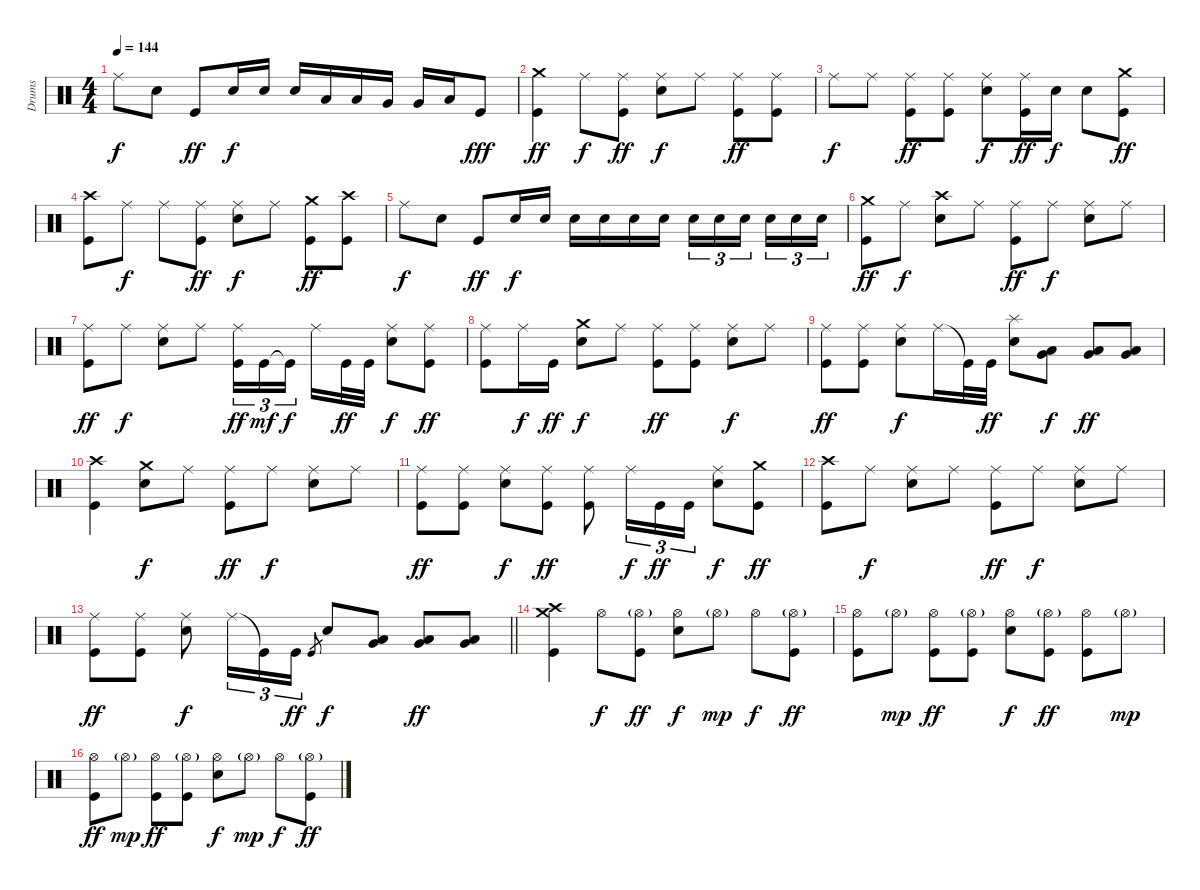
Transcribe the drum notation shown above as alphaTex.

\track ("Drums" "Drums") {instrument percussion}
\staff {score}
\articulation defaults
\ts (4 4)
\tempo 144
\clef neutral
\ks c "Ride (middle)".8{dy f} "Snare (hit) 2".8 "Kick (hit)".8{dy ff} "Snare (hit) 2".16{dy f} "Snare (hit) 2".16 "Snare (hit) 2".16 "Low Tom (hit)".16 "Low Tom (hit)".16 "Very Low Tom (hit)".16 "Very Low Tom (hit)".16 "Low Floor Tom (hit)".16 "Kick (hit)".8{dy fff}
|
("Crash medium (hit)" "Kick (hit)").4{dy ff} "Ride (middle)".8{dy f} ("Ride (middle)" "Kick (hit)").8{dy ff} ("Ride (middle)" "Snare (hit) 2").8{dy f} "Ride (middle)".8 ("Ride (middle)" "Kick (hit)").8{dy ff} ("Ride (middle)" "Kick (hit)").8 |
"Ride (middle)".8{dy f} "Ride (middle)".8 ("Ride (middle)" "Kick (hit)").8{dy ff} ("Ride (middle)" "Kick (hit)").8 ("Ride (middle)" "Snare (hit) 2").8{dy f} ("Ride (middle)" "Kick (hit)").16{dy ff} "Snare (hit) 2".16{dy f} "Snare (hit) 2".8 ("Crash medium (hit)" "Kick (hit)").8{dy ff} |
("Crash high (hit)" "Kick (hit)").8 "Ride (middle)".8{dy f} "Ride (middle)".8 ("Ride (middle)" "Kick (hit)").8{dy ff} ("Ride (middle)" "Snare (hit) 2").8{dy f} "Ride (middle)".8 ("Crash medium (hit)" "Kick (hit)").8{dy ff} ("Crash high (hit)" "Kick (hit)").8 |
"Ride (middle)".8{dy f} "Snare (hit) 2".8 "Kick (hit)".8{dy ff} "Snare (hit) 2".16{dy f} "Snare (hit) 2".16 "Snare (hit) 2".16 "Snare (hit) 2".16 "Snare (hit) 2".16 "Snare (hit) 2".16 "Snare (hit) 2".16{tu (3 2)} "Snare (hit) 2".16{tu (3 2)} "Snare (hit) 2".16{tu (3 2)} "Snare (hit) 2".16{tu (3 2)} "Snare (hit) 2".16{tu (3 2)} "Snare (hit) 2".16{tu (3 2)} |
("Crash medium (hit)" "Kick (hit)").8{dy ff} "Ride (middle)".8{dy f} ("Crash high (hit)" "Snare (hit) 2").8 "Ride (middle)".8 ("Ride (middle)" "Kick (hit)").8{dy ff} "Ride (middle)".8{dy f} ("Ride (middle)" "Snare (hit) 2").8 "Ride (middle)".8 |
("Ride (middle)" "Kick (hit)").8{dy ff} "Ride (middle)".8{dy f} ("Ride (middle)" "Snare (hit) 2").8 "Ride (middle)".8 ("Ride (middle)" "Kick (hit)").16{tu (3 2) dy ff} "Kick (hit)".16{tu (3 2) dy mf} "Kick (hit)"{t}.16{tu (3 2) dy f} "Ride (middle)".16 "Kick (hit)".32{dy ff} "Kick (hit)".32 ("Ride (middle)" "Snare (hit) 2").8{dy f} ("Ride (middle)" "Kick (hit)").8{dy ff} |
("Ride (middle)" "Kick (hit)").8 "Ride (middle)".16{dy f} "Kick (hit)".16{dy ff} ("Crash medium (hit)" "Snare (hit) 2").8{dy f} "Ride (middle)".8 ("Ride (middle)" "Kick (hit)").8{dy ff} ("Ride (middle)" "Kick (hit)").8 ("Ride (middle)" "Snare (hit) 2").8{dy f} "Ride (middle)".8 |
("Ride (middle)" "Kick (hit)").8{dy ff} ("Ride (middle)" "Kick (hit)").8 ("Ride (middle)" "Snare (hit) 2").8{dy f} "Ride (middle)".16 "Kick (hit)"{t}.32 "Kick (hit)".32{dy ff} ("Splash (hit)" "Snare (hit) 2").8 ("Low Floor Tom (hit)" "Very Low Tom (hit)").8{dy f} ("Low Floor Tom (hit)" "Very Low Tom (hit)").8{dy ff} ("Low Floor Tom (hit)" "Very Low Tom (hit)").8 |
("Crash high (hit)" "Kick (hit)").4 ("Crash medium (hit)" "Snare (hit) 2").8{dy f} "Ride (middle)".8 ("Ride (middle)" "Kick (hit)").8{dy ff} "Ride (middle)".8{dy f} ("Ride (middle)" "Snare (hit) 2").8 "Ride (middle)".8 |
("Ride (middle)" "Kick (hit)").8{dy ff} ("Ride (middle)" "Kick (hit)").8 ("Ride (middle)" "Snare (hit) 2").8{dy f} ("Ride (middle)" "Kick (hit)").8{dy ff} ("Ride (middle)" "Kick (hit)").8 "Ride (middle)".16{tu (3 2) dy f} "Kick (hit)".16{tu (3 2) dy ff} "Kick (hit)".16{tu (3 2)} ("Ride (middle)" "Snare (hit) 2").8{dy f} ("Crash medium (hit)" "Kick (hit)").8{dy ff} |
("Crash high (hit)" "Kick (hit)").8 "Ride (middle)".8{dy f} ("Ride (middle)" "Snare (hit) 2").8 "Ride (middle)".8 ("Ride (middle)" "Kick (hit)").8{dy ff} "Ride (middle)".8{dy f} ("Ride (middle)" "Snare (hit) 2").8 "Ride (middle)".8 |
\barLineRight lightlight
("Ride (middle)" "Kick (hit)").8{dy ff} ("Ride (middle)" "Kick (hit)").8 ("Ride (middle)" "Snare (hit) 2").8{dy f} "Ride (middle)".16{tu (3 2)} "Kick (hit)"{t}.16{tu (3 2)} "Kick (hit)".16{tu (3 2) dy ff} "Kick (hit)".8{gr} "Snare (hit) 2".8{dy f} ("Low Floor Tom (hit)" "Very Low Tom (hit)").8 ("Low Floor Tom (hit)" "Very Low Tom (hit)").8{dy ff} ("Low Floor Tom (hit)" "Very Low Tom (hit)").8 |
("Crash high (hit)" "Crash medium (hit)" "Kick (hit)").4 "Hi-Hat (open)".8{dy f} ("Hi-Hat (open)"{g} "Kick (hit)").8{dy ff} ("Hi-Hat (open)" "Snare (hit) 2").8{dy f} "Hi-Hat (open)"{g}.8{dy mp} "Hi-Hat (open)".8{dy f} ("Hi-Hat (open)"{g} "Kick (hit)").8{dy ff} |
("Hi-Hat (open)" "Kick (hit)").8 "Hi-Hat (open)"{g}.8{dy mp} ("Hi-Hat (open)" "Kick (hit)").8{dy ff} ("Hi-Hat (open)"{g} "Kick (hit)").8 ("Hi-Hat (open)" "Snare (hit) 2").8{dy f} ("Hi-Hat (open)"{g} "Kick (hit)").8{dy ff} ("Hi-Hat (open)" "Kick (hit)").8 "Hi-Hat (open)"{g}.8{dy mp} |
("Hi-Hat (open)" "Kick (hit)").8{dy ff} "Hi-Hat (open)"{g}.8{dy mp} ("Hi-Hat (open)" "Kick (hit)").8{dy ff} ("Hi-Hat (open)"{g} "Kick (hit)").8 ("Hi-Hat (open)" "Snare (hit) 2").8{dy f} "Hi-Hat (open)"{g}.8{dy mp} "Hi-Hat (open)".8{dy f} ("Hi-Hat (open)"{g} "Kick (hit)").8{dy ff}
